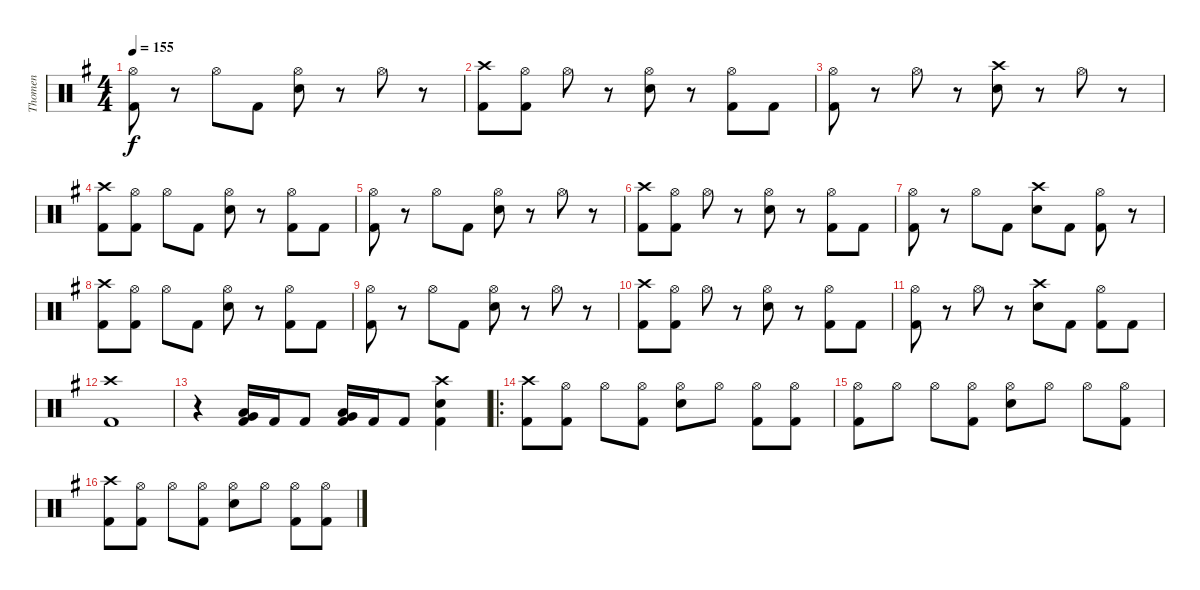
\track ("Thomen" "Thomen") {instrument percussion}
\staff {score}
\articulation defaults
\ts (4 4)
\tempo 155
\clef neutral
\ks g
("Hi-Hat (open)" "Kick (hit) 2").8{dy f} r.8 "Hi-Hat (open)".8 "Kick (hit) 2".8 ("Hi-Hat (open)" "Electric Snare (hit)").8 r.8 "Hi-Hat (open)".8 r.8 |
("Crash high (hit)" "Kick (hit) 2").8 ("Hi-Hat (open)" "Kick (hit) 2").8 "Hi-Hat (open)".8 r.8 ("Hi-Hat (open)" "Electric Snare (hit)").8 r.8 ("Hi-Hat (open)" "Kick (hit) 2").8 "Kick (hit) 2".8 |
("Hi-Hat (open)" "Kick (hit) 2").8 r.8 "Hi-Hat (open)".8 r.8 ("Crash high (hit)" "Electric Snare (hit)").8 r.8 "Hi-Hat (open)".8 r.8 |
("Crash high (hit)" "Kick (hit) 2").8 ("Hi-Hat (open)" "Kick (hit) 2").8 "Hi-Hat (open)".8 "Kick (hit) 2".8 ("Hi-Hat (open)" "Electric Snare (hit)").8 r.8 ("Hi-Hat (open)" "Kick (hit) 2").8 "Kick (hit) 2".8 |
("Hi-Hat (open)" "Kick (hit) 2").8 r.8 "Hi-Hat (open)".8 "Kick (hit) 2".8 ("Hi-Hat (open)" "Electric Snare (hit)").8 r.8 "Hi-Hat (open)".8 r.8 |
("Crash high (hit)" "Kick (hit) 2").8 ("Hi-Hat (open)" "Kick (hit) 2").8 "Hi-Hat (open)".8 r.8 ("Hi-Hat (open)" "Electric Snare (hit)").8 r.8 ("Hi-Hat (open)" "Kick (hit) 2").8 "Kick (hit) 2".8 |
("Hi-Hat (open)" "Kick (hit) 2").8 r.8 "Hi-Hat (open)".8 "Kick (hit) 2".8 ("Crash high (hit)" "Electric Snare (hit)").8 "Kick (hit) 2".8 ("Hi-Hat (open)" "Kick (hit) 2").8 r.8 |
("Crash high (hit)" "Kick (hit) 2").8 ("Hi-Hat (open)" "Kick (hit) 2").8 "Hi-Hat (open)".8 "Kick (hit) 2".8 ("Hi-Hat (open)" "Electric Snare (hit)").8 r.8 ("Hi-Hat (open)" "Kick (hit) 2").8 "Kick (hit) 2".8 |
("Hi-Hat (open)" "Kick (hit) 2").8 r.8 "Hi-Hat (open)".8 "Kick (hit) 2".8 ("Hi-Hat (open)" "Electric Snare (hit)").8 r.8 "Hi-Hat (open)".8 r.8 |
("Crash high (hit)" "Kick (hit) 2").8 ("Hi-Hat (open)" "Kick (hit) 2").8 "Hi-Hat (open)".8 r.8 ("Hi-Hat (open)" "Electric Snare (hit)").8 r.8 ("Hi-Hat (open)" "Kick (hit) 2").8 "Kick (hit) 2".8 |
("Hi-Hat (open)" "Kick (hit) 2").8 r.8 "Hi-Hat (open)".8 r.8 ("Crash high (hit)" "Electric Snare (hit)").8 "Kick (hit) 2".8 ("Hi-Hat (open)" "Kick (hit) 2").8 "Kick (hit) 2".8 |
("Crash high (hit)" "Kick (hit) 2").1 |
r.4 ("Very Low Tom (hit)" "Low Tom (hit)" "Kick (hit) 2").16 "Kick (hit) 2".16 "Kick (hit) 2".8 ("Very Low Tom (hit)" "Low Tom (hit)" "Kick (hit) 2").16 "Kick (hit) 2".16 "Kick (hit) 2".8 ("Crash high (hit)" "Electric Snare (hit)" "Kick (hit) 2").4 |
\ro
("Crash high (hit)" "Kick (hit) 2").8 ("Hi-Hat (open)" "Kick (hit) 2").8 "Hi-Hat (open)".8 ("Hi-Hat (open)" "Kick (hit) 2").8 ("Hi-Hat (open)" "Electric Snare (hit)").8 "Hi-Hat (open)".8 ("Hi-Hat (open)" "Kick (hit) 2").8 ("Hi-Hat (open)" "Kick (hit) 2").8 |
("Hi-Hat (open)" "Kick (hit) 2").8 "Hi-Hat (open)".8 "Hi-Hat (open)".8 ("Hi-Hat (open)" "Kick (hit) 2").8 ("Hi-Hat (open)" "Electric Snare (hit)").8 "Hi-Hat (open)".8 "Hi-Hat (open)".8 ("Hi-Hat (open)" "Kick (hit) 2").8 |
("Crash high (hit)" "Kick (hit) 2").8 ("Hi-Hat (open)" "Kick (hit) 2").8 "Hi-Hat (open)".8 ("Hi-Hat (open)" "Kick (hit) 2").8 ("Hi-Hat (open)" "Electric Snare (hit)").8 "Hi-Hat (open)".8 ("Hi-Hat (open)" "Kick (hit) 2").8 ("Hi-Hat (open)" "Kick (hit) 2").8
